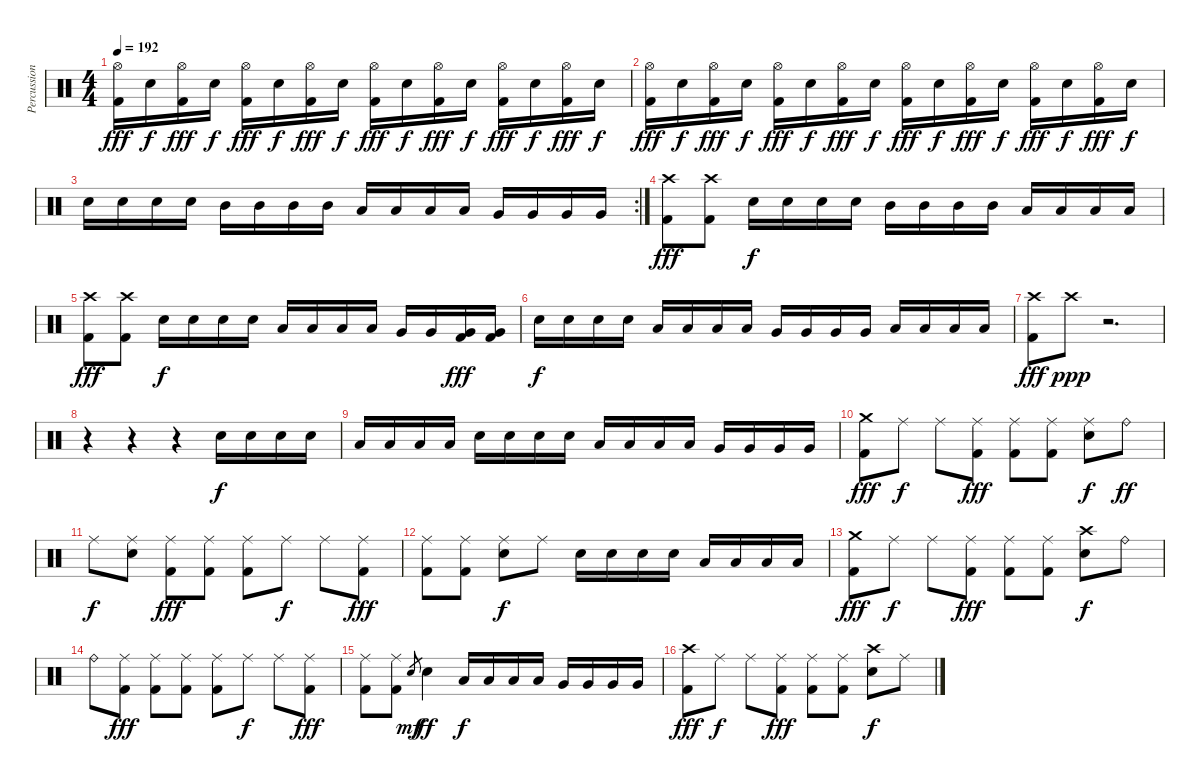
\track ("Percussion" "Percussion") {instrument percussion}
\staff {score}
\articulation defaults
\ts (4 4)
\tempo 192
\clef neutral
\ks c
("Hi-Hat (open)" "Kick (hit) 2").16{dy fff} "Electric Snare (hit)".16{dy f} ("Hi-Hat (open)" "Kick (hit) 2").16{dy fff} "Electric Snare (hit)".16{dy f} ("Hi-Hat (open)" "Kick (hit) 2").16{dy fff} "Electric Snare (hit)".16{dy f} ("Hi-Hat (open)" "Kick (hit) 2").16{dy fff} "Electric Snare (hit)".16{dy f} ("Hi-Hat (open)" "Kick (hit) 2").16{dy fff} "Electric Snare (hit)".16{dy f} ("Hi-Hat (open)" "Kick (hit) 2").16{dy fff} "Electric Snare (hit)".16{dy f} ("Hi-Hat (open)" "Kick (hit) 2").16{dy fff} "Electric Snare (hit)".16{dy f} ("Hi-Hat (open)" "Kick (hit) 2").16{dy fff} "Electric Snare (hit)".16{dy f} |
("Hi-Hat (open)" "Kick (hit) 2").16{dy fff} "Electric Snare (hit)".16{dy f} ("Hi-Hat (open)" "Kick (hit) 2").16{dy fff} "Electric Snare (hit)".16{dy f} ("Hi-Hat (open)" "Kick (hit) 2").16{dy fff} "Electric Snare (hit)".16{dy f} ("Hi-Hat (open)" "Kick (hit) 2").16{dy fff} "Electric Snare (hit)".16{dy f} ("Hi-Hat (open)" "Kick (hit) 2").16{dy fff} "Electric Snare (hit)".16{dy f} ("Hi-Hat (open)" "Kick (hit) 2").16{dy fff} "Electric Snare (hit)".16{dy f} ("Hi-Hat (open)" "Kick (hit) 2").16{dy fff} "Electric Snare (hit)".16{dy f} ("Hi-Hat (open)" "Kick (hit) 2").16{dy fff} "Electric Snare (hit)".16{dy f} |
\rc 2 "Electric Snare (hit)".16 "Electric Snare (hit)".16 "Electric Snare (hit)".16 "Electric Snare (hit)".16 "Mid Tom (hit)".16 "Mid Tom (hit)".16 "Mid Tom (hit)".16 "Mid Tom (hit)".16 "Low Tom (hit)".16 "Low Tom (hit)".16 "Low Tom (hit)".16 "Low Tom (hit)".16 "Very Low Tom (hit)".16 "Very Low Tom (hit)".16 "Very Low Tom (hit)".16 "Very Low Tom (hit)".16
|
("Crash high (hit)" "Kick (hit) 2").8{dy fff} ("Crash high (hit)" "Kick (hit) 2").8 "Electric Snare (hit)".16{dy f} "Electric Snare (hit)".16 "Electric Snare (hit)".16 "Electric Snare (hit)".16 "Mid Tom (hit)".16 "Mid Tom (hit)".16 "Mid Tom (hit)".16 "Mid Tom (hit)".16 "Low Tom (hit)".16 "Low Tom (hit)".16 "Low Tom (hit)".16 "Low Tom (hit)".16 |
("Crash high (hit)" "Kick (hit) 2").8{dy fff} ("Crash high (hit)" "Kick (hit) 2").8 "Electric Snare (hit)".16{dy f} "Electric Snare (hit)".16 "Electric Snare (hit)".16 "Electric Snare (hit)".16 "Low Tom (hit)".16 "Low Tom (hit)".16 "Low Tom (hit)".16 "Low Tom (hit)".16 "Very Low Tom (hit)".16 "Very Low Tom (hit)".16 ("Very Low Tom (hit)" "Kick (hit) 2").16{dy fff} ("Very Low Tom (hit)" "Kick (hit) 2").16 |
"Electric Snare (hit)".16{dy f} "Electric Snare (hit)".16 "Electric Snare (hit)".16 "Electric Snare (hit)".16 "Low Tom (hit)".16 "Low Tom (hit)".16 "Low Tom (hit)".16 "Low Tom (hit)".16 "Very Low Tom (hit)".16 "Very Low Tom (hit)".16 "Very Low Tom (hit)".16 "Very Low Tom (hit)".16 "Low Floor Tom (hit)".16 "Low Floor Tom (hit)".16 "Low Floor Tom (hit)".16 "Low Floor Tom (hit)".16 |
("Crash high (hit)" "Kick (hit) 2").8{dy fff} "Crash high (hit)".8{dy ppp} r.2{d} |
r.4 r.4 r.4 "Electric Snare (hit)".16{dy f} "Electric Snare (hit)".16 "Electric Snare (hit)".16 "Electric Snare (hit)".16 |
"Low Tom (hit)".16 "Low Tom (hit)".16 "Low Tom (hit)".16 "Low Tom (hit)".16 "Electric Snare (hit)".16 "Electric Snare (hit)".16 "Electric Snare (hit)".16 "Electric Snare (hit)".16 "Low Tom (hit)".16 "Low Tom (hit)".16 "Low Tom (hit)".16 "Low Tom (hit)".16 "Very Low Tom (hit)".16 "Very Low Tom (hit)".16 "Very Low Tom (hit)".16 "Very Low Tom (hit)".16 |
("Crash medium (hit)" "Kick (hit) 2").8{dy fff} "Ride (middle)".8{dy f} "Ride (middle)".8 ("Ride (middle)" "Kick (hit) 2").8{dy fff} ("Ride (middle)" "Kick (hit) 2").8 ("Ride (middle)" "Kick (hit) 2").8 ("Ride (middle)" "Electric Snare (hit)").8{dy f} "Ride (bell)".8{dy ff} |
"Ride (middle)".8{dy f} ("Ride (middle)" "Electric Snare (hit)").8 ("Ride (middle)" "Kick (hit) 2").8{dy fff} ("Ride (middle)" "Kick (hit) 2").8 ("Ride (middle)" "Kick (hit) 2").8 "Ride (middle)".8{dy f} "Ride (middle)".8 ("Ride (middle)" "Kick (hit) 2").8{dy fff} |
("Ride (middle)" "Kick (hit) 2").8 ("Ride (middle)" "Kick (hit) 2").8 ("Ride (middle)" "Electric Snare (hit)").8{dy f} "Ride (middle)".8 "Electric Snare (hit)".16 "Electric Snare (hit)".16 "Electric Snare (hit)".16 "Electric Snare (hit)".16 "Low Tom (hit)".16 "Low Tom (hit)".16 "Low Tom (hit)".16 "Low Tom (hit)".16 |
("Crash medium (hit)" "Kick (hit) 2").8{dy fff} "Ride (middle)".8{dy f} "Ride (middle)".8 ("Ride (middle)" "Kick (hit) 2").8{dy fff} ("Ride (middle)" "Kick (hit) 2").8 ("Ride (middle)" "Kick (hit) 2").8 ("Crash high (hit)" "Electric Snare (hit)").8{dy f} "Ride (bell)".8 |
"Ride (bell)".8 ("Ride (middle)" "Kick (hit) 2").8{dy fff} ("Ride (middle)" "Kick (hit) 2").8 ("Ride (middle)" "Kick (hit) 2").8 ("Ride (middle)" "Kick (hit) 2").8 "Ride (middle)".8{dy f} "Ride (middle)".8 ("Ride (middle)" "Kick (hit) 2").8{dy fff} |
("Ride (middle)" "Kick (hit) 2").8 ("Ride (middle)" "Kick (hit) 2").8 "Electric Snare (hit)".8{gr dy mf} "Electric Snare (hit)".4{dy ff} "Low Tom (hit)".16{dy f} "Low Tom (hit)".16 "Low Tom (hit)".16 "Low Tom (hit)".16 "Very Low Tom (hit)".16 "Very Low Tom (hit)".16 "Very Low Tom (hit)".16 "Very Low Tom (hit)".16 |
("Crash high (hit)" "Kick (hit) 2").8{dy fff} "Ride (middle)".8{dy f} "Ride (middle)".8 ("Ride (middle)" "Kick (hit) 2").8{dy fff} ("Ride (middle)" "Kick (hit) 2").8 ("Ride (middle)" "Kick (hit) 2").8 ("Crash high (hit)" "Electric Snare (hit)").8{dy f} "Ride (middle)".8
